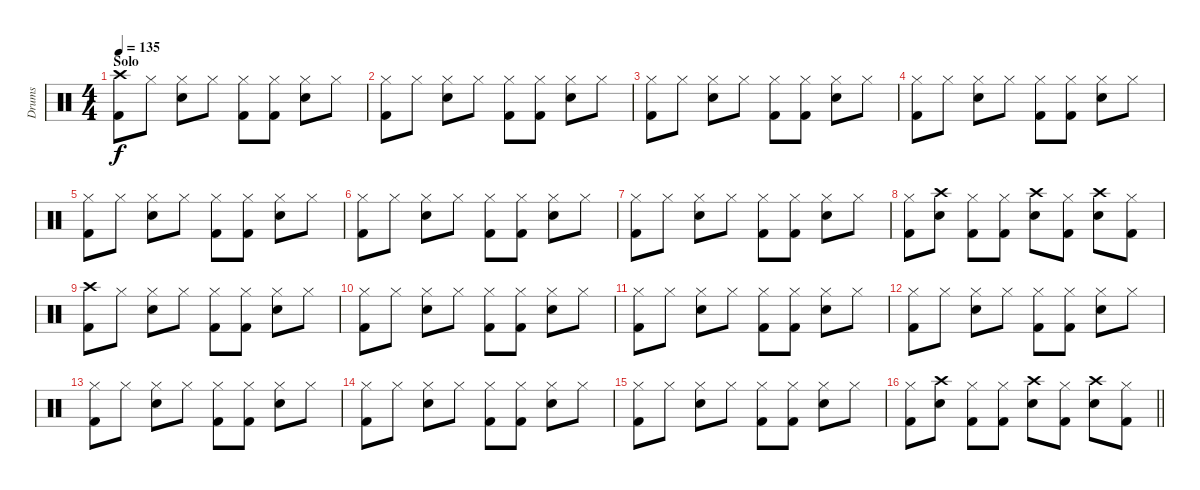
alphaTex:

\track ("Drums" "Drums") {instrument percussion}
\staff {score}
\articulation defaults
\ts (4 4)
\section ("" "Solo")
\tempo 135
\clef neutral
\ks c
("Crash high (hit)" "Kick (hit) 2").8{dy f} "Hi-Hat (closed)".8 ("Hi-Hat (closed)" "Electric Snare (hit)").8 "Hi-Hat (closed)".8 ("Hi-Hat (closed)" "Kick (hit) 2").8 ("Hi-Hat (closed)" "Kick (hit) 2").8 ("Hi-Hat (closed)" "Electric Snare (hit)").8 "Hi-Hat (closed)".8 |
("Hi-Hat (closed)" "Kick (hit) 2").8 "Hi-Hat (closed)".8 ("Hi-Hat (closed)" "Electric Snare (hit)").8 "Hi-Hat (closed)".8 ("Hi-Hat (closed)" "Kick (hit) 2").8 ("Hi-Hat (closed)" "Kick (hit) 2").8 ("Hi-Hat (closed)" "Electric Snare (hit)").8 "Hi-Hat (closed)".8 |
("Hi-Hat (closed)" "Kick (hit) 2").8 "Hi-Hat (closed)".8 ("Hi-Hat (closed)" "Electric Snare (hit)").8 "Hi-Hat (closed)".8 ("Hi-Hat (closed)" "Kick (hit) 2").8 ("Hi-Hat (closed)" "Kick (hit) 2").8 ("Hi-Hat (closed)" "Electric Snare (hit)").8 "Hi-Hat (closed)".8 |
("Hi-Hat (closed)" "Kick (hit) 2").8 "Hi-Hat (closed)".8 ("Hi-Hat (closed)" "Electric Snare (hit)").8 "Hi-Hat (closed)".8 ("Hi-Hat (closed)" "Kick (hit) 2").8 ("Hi-Hat (closed)" "Kick (hit) 2").8 ("Hi-Hat (closed)" "Electric Snare (hit)").8 "Hi-Hat (closed)".8 |
("Hi-Hat (closed)" "Kick (hit) 2").8 "Hi-Hat (closed)".8 ("Hi-Hat (closed)" "Electric Snare (hit)").8 "Hi-Hat (closed)".8 ("Hi-Hat (closed)" "Kick (hit) 2").8 ("Hi-Hat (closed)" "Kick (hit) 2").8 ("Hi-Hat (closed)" "Electric Snare (hit)").8 "Hi-Hat (closed)".8 |
("Hi-Hat (closed)" "Kick (hit) 2").8 "Hi-Hat (closed)".8 ("Hi-Hat (closed)" "Electric Snare (hit)").8 "Hi-Hat (closed)".8 ("Hi-Hat (closed)" "Kick (hit) 2").8 ("Hi-Hat (closed)" "Kick (hit) 2").8 ("Hi-Hat (closed)" "Electric Snare (hit)").8 "Hi-Hat (closed)".8 |
("Hi-Hat (closed)" "Kick (hit) 2").8 "Hi-Hat (closed)".8 ("Hi-Hat (closed)" "Electric Snare (hit)").8 "Hi-Hat (closed)".8 ("Hi-Hat (closed)" "Kick (hit) 2").8 ("Hi-Hat (closed)" "Kick (hit) 2").8 ("Hi-Hat (closed)" "Electric Snare (hit)").8 "Hi-Hat (closed)".8 |
("Hi-Hat (closed)" "Kick (hit) 2").8 ("Crash high (hit)" "Electric Snare (hit)").8 ("Hi-Hat (closed)" "Kick (hit) 2").8 ("Hi-Hat (closed)" "Kick (hit) 2").8 ("Crash high (hit)" "Electric Snare (hit)").8 ("Hi-Hat (closed)" "Kick (hit) 2").8 ("Crash high (hit)" "Electric Snare (hit)").8 ("Hi-Hat (closed)" "Kick (hit) 2").8 |
("Crash high (hit)" "Kick (hit) 2").8 "Hi-Hat (closed)".8 ("Hi-Hat (closed)" "Electric Snare (hit)").8 "Hi-Hat (closed)".8 ("Hi-Hat (closed)" "Kick (hit) 2").8 ("Hi-Hat (closed)" "Kick (hit) 2").8 ("Hi-Hat (closed)" "Electric Snare (hit)").8 "Hi-Hat (closed)".8 |
("Hi-Hat (closed)" "Kick (hit) 2").8 "Hi-Hat (closed)".8 ("Hi-Hat (closed)" "Electric Snare (hit)").8 "Hi-Hat (closed)".8 ("Hi-Hat (closed)" "Kick (hit) 2").8 ("Hi-Hat (closed)" "Kick (hit) 2").8 ("Hi-Hat (closed)" "Electric Snare (hit)").8 "Hi-Hat (closed)".8 |
("Hi-Hat (closed)" "Kick (hit) 2").8 "Hi-Hat (closed)".8 ("Hi-Hat (closed)" "Electric Snare (hit)").8 "Hi-Hat (closed)".8 ("Hi-Hat (closed)" "Kick (hit) 2").8 ("Hi-Hat (closed)" "Kick (hit) 2").8 ("Hi-Hat (closed)" "Electric Snare (hit)").8 "Hi-Hat (closed)".8 |
("Hi-Hat (closed)" "Kick (hit) 2").8 "Hi-Hat (closed)".8 ("Hi-Hat (closed)" "Electric Snare (hit)").8 "Hi-Hat (closed)".8 ("Hi-Hat (closed)" "Kick (hit) 2").8 ("Hi-Hat (closed)" "Kick (hit) 2").8 ("Hi-Hat (closed)" "Electric Snare (hit)").8 "Hi-Hat (closed)".8 |
("Hi-Hat (closed)" "Kick (hit) 2").8 "Hi-Hat (closed)".8 ("Hi-Hat (closed)" "Electric Snare (hit)").8 "Hi-Hat (closed)".8 ("Hi-Hat (closed)" "Kick (hit) 2").8 ("Hi-Hat (closed)" "Kick (hit) 2").8 ("Hi-Hat (closed)" "Electric Snare (hit)").8 "Hi-Hat (closed)".8 |
("Hi-Hat (closed)" "Kick (hit) 2").8 "Hi-Hat (closed)".8 ("Hi-Hat (closed)" "Electric Snare (hit)").8 "Hi-Hat (closed)".8 ("Hi-Hat (closed)" "Kick (hit) 2").8 ("Hi-Hat (closed)" "Kick (hit) 2").8 ("Hi-Hat (closed)" "Electric Snare (hit)").8 "Hi-Hat (closed)".8 |
("Hi-Hat (closed)" "Kick (hit) 2").8 "Hi-Hat (closed)".8 ("Hi-Hat (closed)" "Electric Snare (hit)").8 "Hi-Hat (closed)".8 ("Hi-Hat (closed)" "Kick (hit) 2").8 ("Hi-Hat (closed)" "Kick (hit) 2").8 ("Hi-Hat (closed)" "Electric Snare (hit)").8 "Hi-Hat (closed)".8 |
\barLineRight lightlight
("Hi-Hat (closed)" "Kick (hit) 2").8 ("Crash high (hit)" "Electric Snare (hit)").8 ("Hi-Hat (closed)" "Kick (hit) 2").8 ("Hi-Hat (closed)" "Kick (hit) 2").8 ("Crash high (hit)" "Electric Snare (hit)").8 ("Hi-Hat (closed)" "Kick (hit) 2").8 ("Crash high (hit)" "Electric Snare (hit)").8 ("Hi-Hat (closed)" "Kick (hit) 2").8
